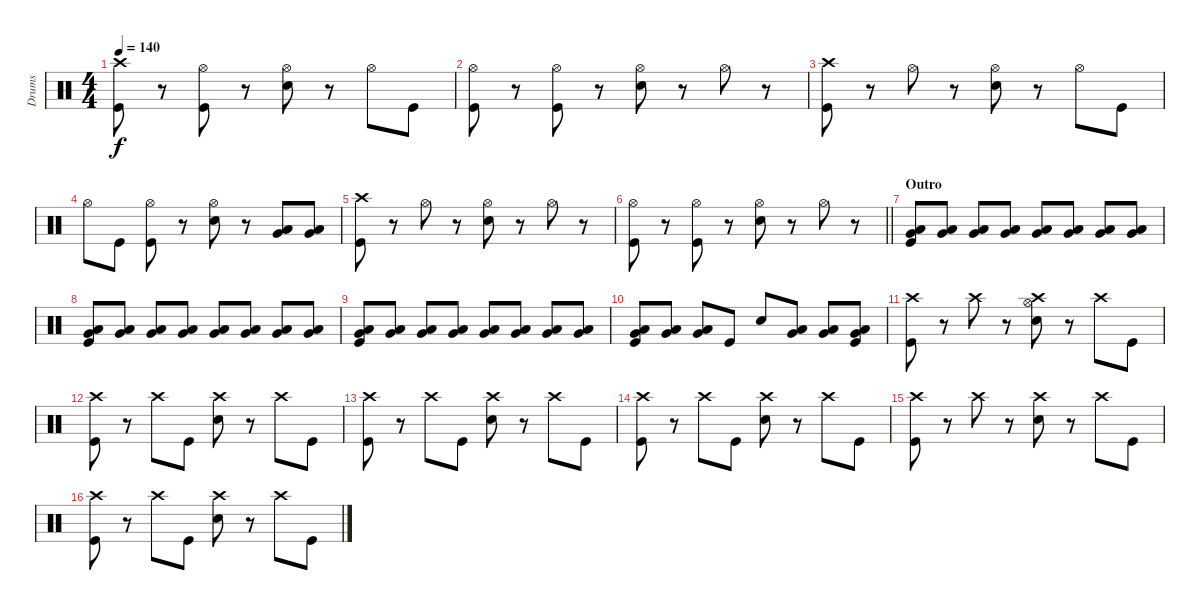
\track ("Drums" "Drums") {instrument percussion}
\staff {score}
\articulation defaults
\ts (4 4)
\tempo 140
\clef neutral
\ks c
("Crash high (hit)" "Kick (hit)").8{dy f} r.8 ("Hi-Hat (open)" "Kick (hit)").8 r.8 ("Hi-Hat (open)" "Snare (hit) 2").8 r.8 "Hi-Hat (open)".8 "Kick (hit)".8 |
("Hi-Hat (open)" "Kick (hit)").8 r.8 ("Hi-Hat (open)" "Kick (hit)").8 r.8 ("Hi-Hat (open)" "Snare (hit) 2").8 r.8 "Hi-Hat (open)".8 r.8 |
("Crash high (hit)" "Kick (hit)").8 r.8 "Hi-Hat (open)".8 r.8 ("Hi-Hat (open)" "Snare (hit) 2").8 r.8 "Hi-Hat (open)".8 "Kick (hit)".8 |
"Hi-Hat (open)".8 "Kick (hit)".8 ("Hi-Hat (open)" "Kick (hit)").8 r.8 ("Hi-Hat (open)" "Snare (hit) 2").8 r.8 ("Low Tom (hit)" "Very Low Tom (hit)").8 ("Low Tom (hit)" "Very Low Tom (hit)").8 |
("Crash high (hit)" "Kick (hit)").8 r.8 "Hi-Hat (open)".8 r.8 ("Hi-Hat (open)" "Snare (hit) 2").8 r.8 "Hi-Hat (open)".8 r.8 |
\barLineRight lightlight
("Hi-Hat (open)" "Kick (hit)").8 r.8 ("Hi-Hat (open)" "Kick (hit)").8 r.8 ("Hi-Hat (open)" "Snare (hit) 2").8 r.8 "Hi-Hat (open)".8 r.8 |
\section ("" "Outro")
("Low Tom (hit)" "Very Low Tom (hit)" "Kick (hit)").8 ("Low Tom (hit)" "Very Low Tom (hit)").8 ("Low Tom (hit)" "Very Low Tom (hit)").8 ("Low Tom (hit)" "Very Low Tom (hit)").8 ("Low Tom (hit)" "Very Low Tom (hit)").8 ("Low Tom (hit)" "Very Low Tom (hit)").8 ("Low Tom (hit)" "Very Low Tom (hit)").8 ("Low Tom (hit)" "Very Low Tom (hit)").8 |
("Low Tom (hit)" "Very Low Tom (hit)" "Kick (hit)").8 ("Low Tom (hit)" "Very Low Tom (hit)").8 ("Low Tom (hit)" "Very Low Tom (hit)").8 ("Low Tom (hit)" "Very Low Tom (hit)").8 ("Low Tom (hit)" "Very Low Tom (hit)").8 ("Low Tom (hit)" "Very Low Tom (hit)").8 ("Low Tom (hit)" "Very Low Tom (hit)").8 ("Low Tom (hit)" "Very Low Tom (hit)").8 |
("Low Tom (hit)" "Very Low Tom (hit)" "Kick (hit)").8 ("Low Tom (hit)" "Very Low Tom (hit)").8 ("Low Tom (hit)" "Very Low Tom (hit)").8 ("Low Tom (hit)" "Very Low Tom (hit)").8 ("Low Tom (hit)" "Very Low Tom (hit)").8 ("Low Tom (hit)" "Very Low Tom (hit)").8 ("Low Tom (hit)" "Very Low Tom (hit)").8 ("Low Tom (hit)" "Very Low Tom (hit)").8 |
("Low Tom (hit)" "Very Low Tom (hit)" "Kick (hit)").8 ("Low Tom (hit)" "Very Low Tom (hit)").8 ("Low Tom (hit)" "Very Low Tom (hit)").8 "Kick (hit)".8 "Snare (hit) 2".8 ("Low Tom (hit)" "Very Low Tom (hit)").8 ("Low Tom (hit)" "Very Low Tom (hit)").8 ("Low Tom (hit)" "Very Low Tom (hit)" "Kick (hit)").8 |
("Crash high (hit)" "Kick (hit)").8 r.8 "Crash high (hit)".8 r.8 ("Crash high (hit)" "Hi-Hat (open)" "Snare (hit) 2").8 r.8 "Crash high (hit)".8 "Kick (hit)".8 |
("Crash high (hit)" "Kick (hit)").8 r.8 "Crash high (hit)".8 "Kick (hit)".8 ("Crash high (hit)" "Snare (hit) 2").8 r.8 "Crash high (hit)".8 "Kick (hit)".8 |
("Crash high (hit)" "Kick (hit)").8 r.8 "Crash high (hit)".8 "Kick (hit)".8 ("Crash high (hit)" "Snare (hit) 2").8 r.8 "Crash high (hit)".8 "Kick (hit)".8 |
("Crash high (hit)" "Kick (hit)").8 r.8 "Crash high (hit)".8 "Kick (hit)".8 ("Crash high (hit)" "Snare (hit) 2").8 r.8 "Crash high (hit)".8 "Kick (hit)".8 |
("Crash high (hit)" "Kick (hit)").8 r.8 "Crash high (hit)".8 r.8 ("Crash high (hit)" "Snare (hit) 2").8 r.8 "Crash high (hit)".8 "Kick (hit)".8 |
("Crash high (hit)" "Kick (hit)").8 r.8 "Crash high (hit)".8 "Kick (hit)".8 ("Crash high (hit)" "Snare (hit) 2").8 r.8 "Crash high (hit)".8 "Kick (hit)".8
